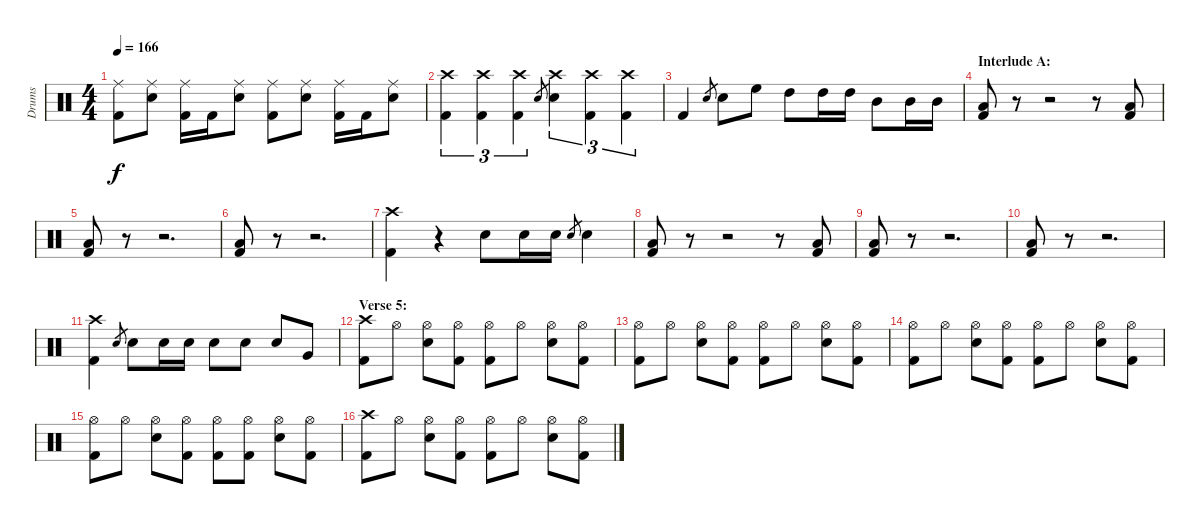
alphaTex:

\track ("Drums" "Drums") {instrument percussion}
\staff {score}
\articulation defaults
\ts (4 4)
\tempo 166
\clef neutral
\ks c
("Ride (middle)" "Kick (hit) 2").8{dy f} ("Ride (middle)" "Electric Snare (hit)").8 ("Ride (middle)" "Kick (hit) 2").16 "Kick (hit) 2".16 ("Ride (middle)" "Electric Snare (hit)").8 ("Ride (middle)" "Kick (hit) 2").8 ("Ride (middle)" "Electric Snare (hit)").8 ("Ride (middle)" "Kick (hit) 2").16 "Kick (hit) 2".16 ("Ride (middle)" "Electric Snare (hit)").8 |
("Crash high (hit)" "Kick (hit) 2").4{tu (3 2)} ("Crash high (hit)" "Kick (hit) 2").4{tu (3 2)} ("Crash high (hit)" "Kick (hit) 2").4{tu (3 2)} "Electric Snare (hit)".8{gr} ("Crash high (hit)" "Electric Snare (hit)").4{tu (3 2)} ("Crash high (hit)" "Kick (hit) 2").4{tu (3 2)} ("Crash high (hit)" "Kick (hit) 2").4{tu (3 2)} |
"Kick (hit) 2".4 "Electric Snare (hit)".8{gr} "Electric Snare (hit)".8 "High Floor Tom (hit)".8 "High Tom (hit)".8 "High Tom (hit)".16 "High Tom (hit)".16 "Mid Tom (hit)".8 "Mid Tom (hit)".16 "Mid Tom (hit)".16 |
\section ("" "Interlude A:")
("Low Floor Tom (hit)" "Kick (hit) 2").8 r.8 r.2 r.8 ("Low Floor Tom (hit)" "Kick (hit) 2").8 |
("Low Floor Tom (hit)" "Kick (hit) 2").8 r.8 r.2{d} |
("Low Floor Tom (hit)" "Kick (hit) 2").8 r.8 r.2{d} |
("Crash high (hit)" "Kick (hit) 2").4 r.4 "Electric Snare (hit)".8 "Electric Snare (hit)".16 "Electric Snare (hit)".16 "Electric Snare (hit)".8{gr} "Electric Snare (hit)".4 |
("Low Floor Tom (hit)" "Kick (hit) 2").8 r.8 r.2 r.8 ("Low Floor Tom (hit)" "Kick (hit) 2").8 |
("Low Floor Tom (hit)" "Kick (hit) 2").8 r.8 r.2{d} |
("Low Floor Tom (hit)" "Kick (hit) 2").8 r.8 r.2{d} |
("Crash high (hit)" "Kick (hit) 2").4 "Electric Snare (hit)".8{gr} "Electric Snare (hit)".8 "Electric Snare (hit)".16 "Electric Snare (hit)".16 "Electric Snare (hit)".8 "Electric Snare (hit)".8 "Electric Snare (hit)".8 "Very Low Tom (hit)".8 |
\section ("" "Verse 5:")
("Crash high (hit)" "Kick (hit) 2").8 "Hi-Hat (open)".8 ("Hi-Hat (open)" "Electric Snare (hit)").8 ("Hi-Hat (open)" "Kick (hit) 2").8 ("Hi-Hat (open)" "Kick (hit) 2").8 "Hi-Hat (open)".8 ("Hi-Hat (open)" "Electric Snare (hit)").8 ("Hi-Hat (open)" "Kick (hit) 2").8 |
("Hi-Hat (open)" "Kick (hit) 2").8 "Hi-Hat (open)".8 ("Hi-Hat (open)" "Electric Snare (hit)").8 ("Hi-Hat (open)" "Kick (hit) 2").8 ("Hi-Hat (open)" "Kick (hit) 2").8 "Hi-Hat (open)".8 ("Hi-Hat (open)" "Electric Snare (hit)").8 ("Hi-Hat (open)" "Kick (hit) 2").8 |
("Hi-Hat (open)" "Kick (hit) 2").8 "Hi-Hat (open)".8 ("Hi-Hat (open)" "Electric Snare (hit)").8 ("Hi-Hat (open)" "Kick (hit) 2").8 ("Hi-Hat (open)" "Kick (hit) 2").8 "Hi-Hat (open)".8 ("Hi-Hat (open)" "Electric Snare (hit)").8 ("Hi-Hat (open)" "Kick (hit) 2").8 |
("Hi-Hat (open)" "Kick (hit) 2").8 "Hi-Hat (open)".8 ("Hi-Hat (open)" "Electric Snare (hit)").8 ("Hi-Hat (open)" "Kick (hit) 2").8 ("Hi-Hat (open)" "Kick (hit) 2").8 ("Hi-Hat (open)" "Kick (hit) 2").8 ("Hi-Hat (open)" "Electric Snare (hit)").8 ("Hi-Hat (open)" "Kick (hit) 2").8 |
("Crash high (hit)" "Kick (hit) 2").8 "Hi-Hat (open)".8 ("Hi-Hat (open)" "Electric Snare (hit)").8 ("Hi-Hat (open)" "Kick (hit) 2").8 ("Hi-Hat (open)" "Kick (hit) 2").8 "Hi-Hat (open)".8 ("Hi-Hat (open)" "Electric Snare (hit)").8 ("Hi-Hat (open)" "Kick (hit) 2").8
